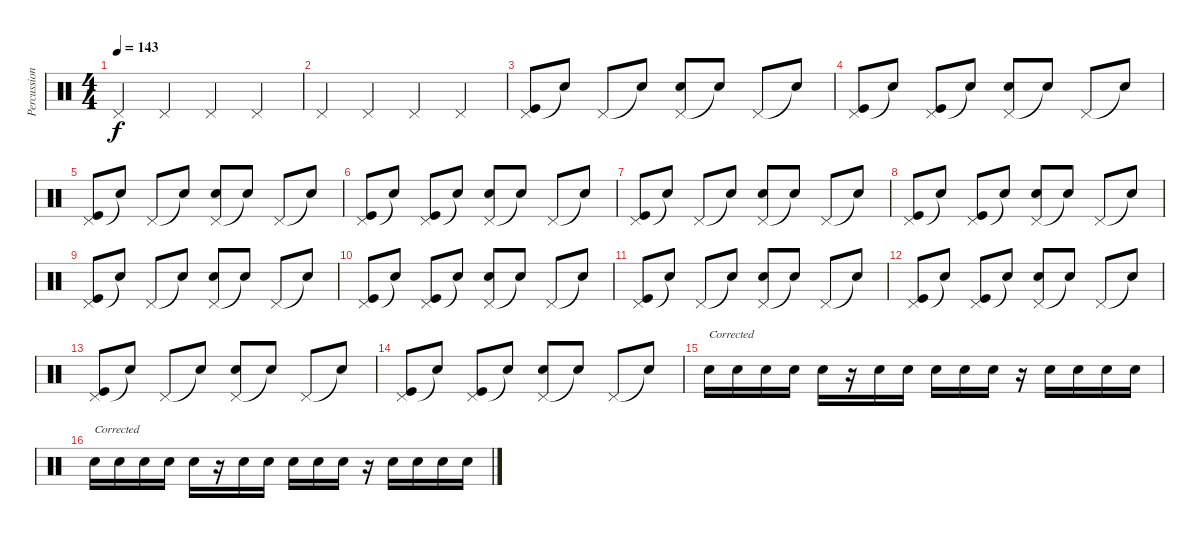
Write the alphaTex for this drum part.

\track ("Percussions" "Percussion") {instrument percussion}
\staff {score}
\articulation defaults
\ts (4 4)
\tempo 143
\clef neutral
\ks c "Pedal Hi-Hat (hit)".4{dy f} "Pedal Hi-Hat (hit)".4 "Pedal Hi-Hat (hit)".4 "Pedal Hi-Hat (hit)".4
|
"Pedal Hi-Hat (hit)".4 "Pedal Hi-Hat (hit)".4 "Pedal Hi-Hat (hit)".4 "Pedal Hi-Hat (hit)".4 |
("Pedal Hi-Hat (hit)" "Kick (hit)").8 "Snare (hit)"{t}.8 "Pedal Hi-Hat (hit)".8 "Snare (hit)"{t}.8 ("Pedal Hi-Hat (hit)" "Snare (hit) 2").8 "Snare (hit)"{t}.8 "Pedal Hi-Hat (hit)".8 "Snare (hit)"{t}.8 |
("Pedal Hi-Hat (hit)" "Kick (hit)").8 "Snare (hit)"{t}.8 ("Pedal Hi-Hat (hit)" "Kick (hit)").8 "Snare (hit)"{t}.8 ("Pedal Hi-Hat (hit)" "Snare (hit) 2").8 "Snare (hit)"{t}.8 "Pedal Hi-Hat (hit)".8 "Snare (hit)"{t}.8 |
("Pedal Hi-Hat (hit)" "Kick (hit)").8 "Snare (hit)"{t}.8 "Pedal Hi-Hat (hit)".8 "Snare (hit)"{t}.8 ("Pedal Hi-Hat (hit)" "Snare (hit) 2").8 "Snare (hit)"{t}.8 "Pedal Hi-Hat (hit)".8 "Snare (hit)"{t}.8 |
("Pedal Hi-Hat (hit)" "Kick (hit)").8 "Snare (hit)"{t}.8 ("Pedal Hi-Hat (hit)" "Kick (hit)").8 "Snare (hit)"{t}.8 ("Pedal Hi-Hat (hit)" "Snare (hit) 2").8 "Snare (hit)"{t}.8 "Pedal Hi-Hat (hit)".8 "Snare (hit)"{t}.8 |
("Pedal Hi-Hat (hit)" "Kick (hit)").8 "Snare (hit)"{t}.8 "Pedal Hi-Hat (hit)".8 "Snare (hit)"{t}.8 ("Pedal Hi-Hat (hit)" "Snare (hit) 2").8 "Snare (hit)"{t}.8 "Pedal Hi-Hat (hit)".8 "Snare (hit)"{t}.8 |
("Pedal Hi-Hat (hit)" "Kick (hit)").8 "Snare (hit)"{t}.8 ("Pedal Hi-Hat (hit)" "Kick (hit)").8 "Snare (hit)"{t}.8 ("Pedal Hi-Hat (hit)" "Snare (hit) 2").8 "Snare (hit)"{t}.8 "Pedal Hi-Hat (hit)".8 "Snare (hit)"{t}.8 |
("Pedal Hi-Hat (hit)" "Kick (hit)").8 "Snare (hit)"{t}.8 "Pedal Hi-Hat (hit)".8 "Snare (hit)"{t}.8 ("Pedal Hi-Hat (hit)" "Snare (hit) 2").8 "Snare (hit)"{t}.8 "Pedal Hi-Hat (hit)".8 "Snare (hit)"{t}.8 |
("Pedal Hi-Hat (hit)" "Kick (hit)").8 "Snare (hit)"{t}.8 ("Pedal Hi-Hat (hit)" "Kick (hit)").8 "Snare (hit)"{t}.8 ("Pedal Hi-Hat (hit)" "Snare (hit) 2").8 "Snare (hit)"{t}.8 "Pedal Hi-Hat (hit)".8 "Snare (hit)"{t}.8 |
("Pedal Hi-Hat (hit)" "Kick (hit)").8 "Snare (hit)"{t}.8 "Pedal Hi-Hat (hit)".8 "Snare (hit)"{t}.8 ("Pedal Hi-Hat (hit)" "Snare (hit) 2").8 "Snare (hit)"{t}.8 "Pedal Hi-Hat (hit)".8 "Snare (hit)"{t}.8 |
("Pedal Hi-Hat (hit)" "Kick (hit)").8 "Snare (hit)"{t}.8 ("Pedal Hi-Hat (hit)" "Kick (hit)").8 "Snare (hit)"{t}.8 ("Pedal Hi-Hat (hit)" "Snare (hit) 2").8 "Snare (hit)"{t}.8 "Pedal Hi-Hat (hit)".8 "Snare (hit)"{t}.8 |
("Pedal Hi-Hat (hit)" "Kick (hit)").8 "Snare (hit)"{t}.8 "Pedal Hi-Hat (hit)".8 "Snare (hit)"{t}.8 ("Pedal Hi-Hat (hit)" "Snare (hit) 2").8 "Snare (hit)"{t}.8 "Pedal Hi-Hat (hit)".8 "Snare (hit)"{t}.8 |
("Pedal Hi-Hat (hit)" "Kick (hit)").8 "Snare (hit)"{t}.8 ("Pedal Hi-Hat (hit)" "Kick (hit)").8 "Snare (hit)"{t}.8 ("Pedal Hi-Hat (hit)" "Snare (hit) 2").8 "Snare (hit)"{t}.8 "Pedal Hi-Hat (hit)".8 "Snare (hit)"{t}.8 |
"Snare (hit) 2".16{txt "Corrected"} "Snare (hit) 2".16 "Snare (hit) 2".16 "Snare (hit) 2".16 "Snare (hit) 2".16 r.16 "Snare (hit) 2".16 "Snare (hit) 2".16 "Snare (hit) 2".16 "Snare (hit) 2".16 "Snare (hit) 2".16 r.16 "Snare (hit) 2".16 "Snare (hit) 2".16 "Snare (hit) 2".16 "Snare (hit) 2".16 |
"Snare (hit) 2".16{txt "Corrected"} "Snare (hit) 2".16 "Snare (hit) 2".16 "Snare (hit) 2".16 "Snare (hit) 2".16 r.16 "Snare (hit) 2".16 "Snare (hit) 2".16 "Snare (hit) 2".16 "Snare (hit) 2".16 "Snare (hit) 2".16 r.16 "Snare (hit) 2".16 "Snare (hit) 2".16 "Snare (hit) 2".16 "Snare (hit) 2".16
